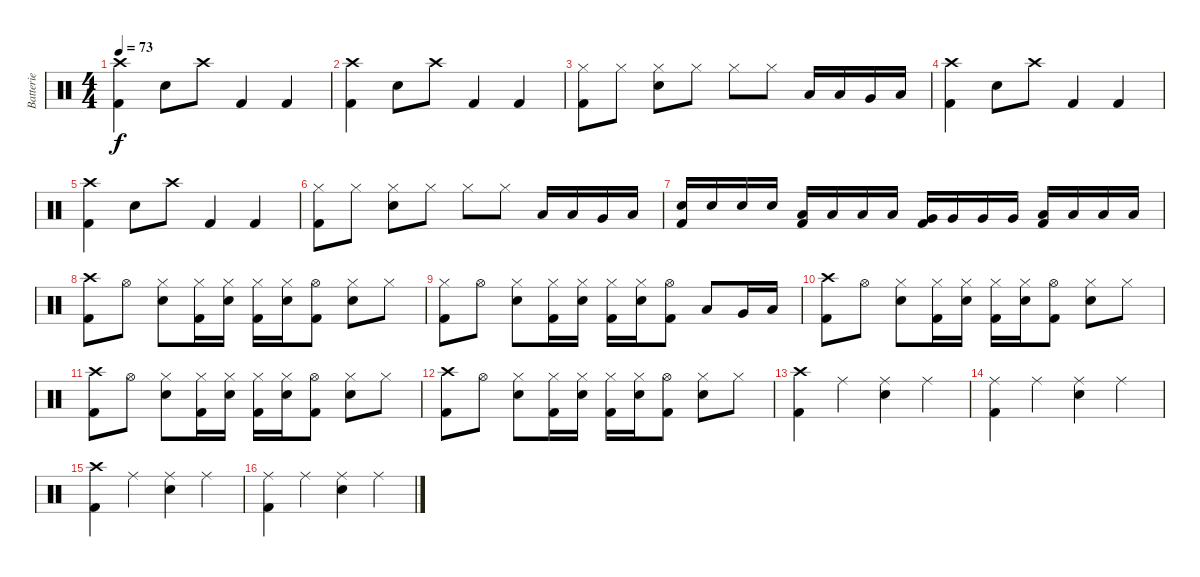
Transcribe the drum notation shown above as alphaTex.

\track ("Batterie" "Batterie") {instrument percussion}
\staff {score}
\articulation defaults
\ts (4 4)
\tempo 73
\clef neutral
\ks c
("Crash high (hit)" "Kick (hit) 2").4{dy f} "Snare (hit) 2".8 "Crash high (hit)".8 "Kick (hit) 2".4 "Kick (hit) 2".4 |
("Crash high (hit)" "Kick (hit) 2").4 "Snare (hit) 2".8 "Crash high (hit)".8 "Kick (hit) 2".4 "Kick (hit) 2".4 |
("Hi-Hat (closed)" "Kick (hit) 2").8 "Hi-Hat (closed)".8 ("Hi-Hat (closed)" "Snare (hit) 2").8 "Hi-Hat (closed)".8 "Hi-Hat (closed)".8 "Hi-Hat (closed)".8 "Low Tom (hit)".16 "Low Tom (hit)".16 "Very Low Tom (hit)".16 "Low Floor Tom (hit)".16 |
("Crash high (hit)" "Kick (hit) 2").4 "Snare (hit) 2".8 "Crash high (hit)".8 "Kick (hit) 2".4 "Kick (hit) 2".4 |
("Crash high (hit)" "Kick (hit) 2").4 "Snare (hit) 2".8 "Crash high (hit)".8 "Kick (hit) 2".4 "Kick (hit) 2".4 |
("Hi-Hat (closed)" "Kick (hit) 2").8 "Hi-Hat (closed)".8 ("Hi-Hat (closed)" "Snare (hit) 2").8 "Hi-Hat (closed)".8 "Hi-Hat (closed)".8 "Hi-Hat (closed)".8 "Low Tom (hit)".16 "Low Tom (hit)".16 "Very Low Tom (hit)".16 "Low Floor Tom (hit)".16 |
("Snare (hit) 2" "Kick (hit) 2").16 "Snare (hit) 2".16 "Snare (hit) 2".16 "Snare (hit) 2".16 ("Low Tom (hit)" "Kick (hit) 2").16 "Low Tom (hit)".16 "Low Tom (hit)".16 "Low Tom (hit)".16 ("Very Low Tom (hit)" "Kick (hit) 2").16 "Very Low Tom (hit)".16 "Very Low Tom (hit)".16 "Very Low Tom (hit)".16 ("Low Floor Tom (hit)" "Kick (hit) 2").16 "Low Floor Tom (hit)".16 "Low Floor Tom (hit)".16 "Low Floor Tom (hit)".16 |
("Crash high (hit)" "Kick (hit) 2").8 "Hi-Hat (open)".8 ("Hi-Hat (closed)" "Snare (hit) 2").8 ("Hi-Hat (closed)" "Kick (hit) 2").16 ("Hi-Hat (closed)" "Snare (hit) 2").16 ("Hi-Hat (closed)" "Kick (hit) 2").16 ("Hi-Hat (closed)" "Snare (hit) 2").16 ("Hi-Hat (open)" "Kick (hit) 2").8 ("Hi-Hat (closed)" "Snare (hit) 2").8 "Hi-Hat (closed)".8 |
("Hi-Hat (closed)" "Kick (hit) 2").8 "Hi-Hat (open)".8 ("Hi-Hat (closed)" "Snare (hit) 2").8 ("Hi-Hat (closed)" "Kick (hit) 2").16 ("Hi-Hat (closed)" "Snare (hit) 2").16 ("Hi-Hat (closed)" "Kick (hit) 2").16 ("Hi-Hat (closed)" "Snare (hit) 2").16 ("Hi-Hat (open)" "Kick (hit) 2").8 "Low Tom (hit)".8 "Very Low Tom (hit)".16 "Low Floor Tom (hit)".16 |
("Crash high (hit)" "Kick (hit) 2").8 "Hi-Hat (open)".8 ("Hi-Hat (closed)" "Snare (hit) 2").8 ("Hi-Hat (closed)" "Kick (hit) 2").16 ("Hi-Hat (closed)" "Snare (hit) 2").16 ("Hi-Hat (closed)" "Kick (hit) 2").16 ("Hi-Hat (closed)" "Snare (hit) 2").16 ("Hi-Hat (open)" "Kick (hit) 2").8 ("Hi-Hat (closed)" "Snare (hit) 2").8 "Hi-Hat (closed)".8 |
("Crash high (hit)" "Kick (hit) 2").8 "Hi-Hat (open)".8 ("Hi-Hat (closed)" "Snare (hit) 2").8 ("Hi-Hat (closed)" "Kick (hit) 2").16 ("Hi-Hat (closed)" "Snare (hit) 2").16 ("Hi-Hat (closed)" "Kick (hit) 2").16 ("Hi-Hat (closed)" "Snare (hit) 2").16 ("Hi-Hat (open)" "Kick (hit) 2").8 ("Hi-Hat (closed)" "Snare (hit) 2").8 "Hi-Hat (closed)".8 |
("Crash high (hit)" "Kick (hit) 2").8 "Hi-Hat (open)".8 ("Hi-Hat (closed)" "Snare (hit) 2").8 ("Hi-Hat (closed)" "Kick (hit) 2").16 ("Hi-Hat (closed)" "Snare (hit) 2").16 ("Hi-Hat (closed)" "Kick (hit) 2").16 ("Hi-Hat (closed)" "Snare (hit) 2").16 ("Hi-Hat (open)" "Kick (hit) 2").8 ("Hi-Hat (closed)" "Snare (hit) 2").8 "Hi-Hat (closed)".8 |
("Crash high (hit)" "Kick (hit) 2").4 "Ride (middle)".4 ("Ride (middle)" "Snare (hit) 2").4 "Ride (middle)".4 |
("Ride (middle)" "Kick (hit) 2").4 "Ride (middle)".4 ("Ride (middle)" "Snare (hit) 2").4 "Ride (middle)".4 |
("Crash high (hit)" "Kick (hit) 2").4 "Ride (middle)".4 ("Ride (middle)" "Snare (hit) 2").4 "Ride (middle)".4 |
("Ride (middle)" "Kick (hit) 2").4 "Ride (middle)".4 ("Ride (middle)" "Snare (hit) 2").4 "Ride (middle)".4
